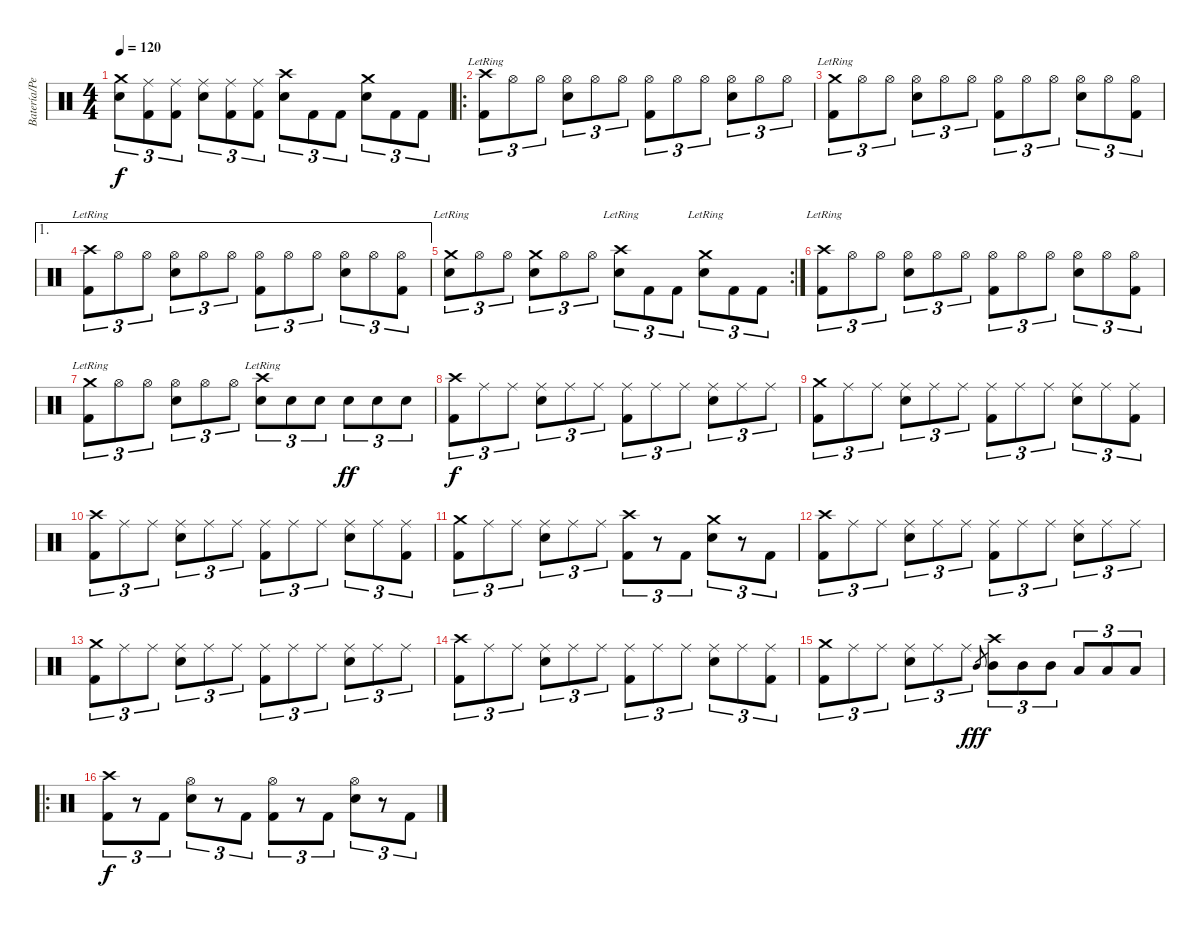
\track ("Batería/Perc." "Batería/Pe") {instrument percussion}
\staff {score}
\articulation defaults
\ts (4 4)
\tempo 120
\clef neutral
\ks c
("Crash medium (hit)" "Snare (hit) 2").8{tu (3 2) dy f volume 14} ("Ride (middle)" "Kick (hit) 2").8{tu (3 2)} ("Ride (middle)" "Kick (hit) 2").8{tu (3 2)} ("Ride (middle)" "Snare (hit) 2").8{tu (3 2)} ("Ride (middle)" "Kick (hit) 2").8{tu (3 2)} ("Ride (middle)" "Kick (hit) 2").8{tu (3 2)} ("Crash high (hit)" "Snare (hit) 2").8{tu (3 2)} "Kick (hit) 2".8{tu (3 2)} "Kick (hit) 2".8{tu (3 2)} ("Crash medium (hit)" "Snare (hit) 2").8{tu (3 2)} "Kick (hit) 2".8{tu (3 2)} "Kick (hit) 2".8{tu (3 2)} |
\ro
("Crash high (hit)"{lr} "Kick (hit) 2").8{tu (3 2) volume 14} "Hi-Hat (open)".8{tu (3 2)} "Hi-Hat (open)".8{tu (3 2)} ("Hi-Hat (open)" "Snare (hit) 2").8{tu (3 2)} "Hi-Hat (open)".8{tu (3 2)} "Hi-Hat (open)".8{tu (3 2)} ("Hi-Hat (open)" "Kick (hit) 2").8{tu (3 2)} "Hi-Hat (open)".8{tu (3 2)} "Hi-Hat (open)".8{tu (3 2)} ("Hi-Hat (open)" "Snare (hit) 2").8{tu (3 2)} "Hi-Hat (open)".8{tu (3 2)} "Hi-Hat (open)".8{tu (3 2)} |
("Crash medium (hit)"{lr} "Kick (hit) 2").8{tu (3 2) volume 14} "Hi-Hat (open)".8{tu (3 2)} "Hi-Hat (open)".8{tu (3 2)} ("Hi-Hat (open)" "Snare (hit) 2").8{tu (3 2)} "Hi-Hat (open)".8{tu (3 2)} "Hi-Hat (open)".8{tu (3 2)} ("Hi-Hat (open)" "Kick (hit) 2").8{tu (3 2)} "Hi-Hat (open)".8{tu (3 2)} "Hi-Hat (open)".8{tu (3 2)} ("Hi-Hat (open)" "Snare (hit) 2").8{tu (3 2)} "Hi-Hat (open)".8{tu (3 2)} ("Hi-Hat (open)" "Kick (hit) 2").8{tu (3 2)} |
\ae 1
("Crash high (hit)"{lr} "Kick (hit) 2").8{tu (3 2) volume 14} "Hi-Hat (open)".8{tu (3 2)} "Hi-Hat (open)".8{tu (3 2)} ("Hi-Hat (open)" "Snare (hit) 2").8{tu (3 2)} "Hi-Hat (open)".8{tu (3 2)} "Hi-Hat (open)".8{tu (3 2)} ("Hi-Hat (open)" "Kick (hit) 2").8{tu (3 2)} "Hi-Hat (open)".8{tu (3 2)} "Hi-Hat (open)".8{tu (3 2)} ("Hi-Hat (open)" "Snare (hit) 2").8{tu (3 2)} "Hi-Hat (open)".8{tu (3 2)} ("Hi-Hat (open)" "Kick (hit) 2").8{tu (3 2)} |
\rc 2
("Crash medium (hit)"{lr} "Snare (hit) 2").8{tu (3 2) volume 14} "Hi-Hat (open)".8{tu (3 2)} "Hi-Hat (open)".8{tu (3 2)} ("Crash medium (hit)" "Snare (hit) 2").8{tu (3 2)} "Hi-Hat (open)".8{tu (3 2)} "Hi-Hat (open)".8{tu (3 2)} ("Crash high (hit)"{lr} "Snare (hit) 2").8{tu (3 2)} "Kick (hit) 2".8{tu (3 2)} "Kick (hit) 2".8{tu (3 2)} ("Crash medium (hit)"{lr} "Snare (hit) 2").8{tu (3 2)} "Kick (hit) 2".8{tu (3 2)} "Kick (hit) 2".8{tu (3 2)} |
("Crash high (hit)"{lr} "Kick (hit) 2").8{tu (3 2) volume 14} "Hi-Hat (open)".8{tu (3 2)} "Hi-Hat (open)".8{tu (3 2)} ("Hi-Hat (open)" "Snare (hit) 2").8{tu (3 2)} "Hi-Hat (open)".8{tu (3 2)} "Hi-Hat (open)".8{tu (3 2)} ("Hi-Hat (open)" "Kick (hit) 2").8{tu (3 2)} "Hi-Hat (open)".8{tu (3 2)} "Hi-Hat (open)".8{tu (3 2)} ("Hi-Hat (open)" "Snare (hit) 2").8{tu (3 2)} "Hi-Hat (open)".8{tu (3 2)} ("Hi-Hat (open)" "Kick (hit) 2").8{tu (3 2)} |
("Crash medium (hit)"{lr} "Kick (hit) 2").8{tu (3 2) volume 14} "Hi-Hat (open)".8{tu (3 2)} "Hi-Hat (open)".8{tu (3 2)} ("Hi-Hat (open)" "Snare (hit) 2").8{tu (3 2)} "Hi-Hat (open)".8{tu (3 2)} "Hi-Hat (open)".8{tu (3 2)} ("Crash high (hit)"{lr} "Snare (hit) 2").8{tu (3 2)} "Snare (hit) 2".8{tu (3 2)} "Snare (hit) 2".8{tu (3 2)} "Snare (hit) 2".8{tu (3 2) dy ff} "Snare (hit) 2".8{tu (3 2)} "Snare (hit) 2".8{tu (3 2)} |
("Crash high (hit)" "Kick (hit) 2").8{tu (3 2) dy f volume 14} "Ride (middle)".8{tu (3 2)} "Ride (middle)".8{tu (3 2)} ("Ride (middle)" "Snare (hit) 2").8{tu (3 2)} "Ride (middle)".8{tu (3 2)} "Ride (middle)".8{tu (3 2)} ("Ride (middle)" "Kick (hit) 2").8{tu (3 2)} "Ride (middle)".8{tu (3 2)} "Ride (middle)".8{tu (3 2)} ("Ride (middle)" "Snare (hit) 2").8{tu (3 2)} "Ride (middle)".8{tu (3 2)} "Ride (middle)".8{tu (3 2)} |
("Crash medium (hit)" "Kick (hit) 2").8{tu (3 2) volume 14} "Ride (middle)".8{tu (3 2)} "Ride (middle)".8{tu (3 2)} ("Ride (middle)" "Snare (hit) 2").8{tu (3 2)} "Ride (middle)".8{tu (3 2)} "Ride (middle)".8{tu (3 2)} ("Ride (middle)" "Kick (hit) 2").8{tu (3 2)} "Ride (middle)".8{tu (3 2)} "Ride (middle)".8{tu (3 2)} ("Ride (middle)" "Snare (hit) 2").8{tu (3 2)} "Ride (middle)".8{tu (3 2)} ("Ride (middle)" "Kick (hit) 2").8{tu (3 2)} |
("Crash high (hit)" "Kick (hit) 2").8{tu (3 2) volume 14} "Ride (middle)".8{tu (3 2)} "Ride (middle)".8{tu (3 2)} ("Ride (middle)" "Snare (hit) 2").8{tu (3 2)} "Ride (middle)".8{tu (3 2)} "Ride (middle)".8{tu (3 2)} ("Ride (middle)" "Kick (hit) 2").8{tu (3 2)} "Ride (middle)".8{tu (3 2)} "Ride (middle)".8{tu (3 2)} ("Ride (middle)" "Snare (hit) 2").8{tu (3 2)} "Ride (middle)".8{tu (3 2)} ("Ride (middle)" "Kick (hit) 2").8{tu (3 2)} |
("Crash medium (hit)" "Kick (hit) 2").8{tu (3 2) volume 14} "Ride (middle)".8{tu (3 2)} "Ride (middle)".8{tu (3 2)} ("Ride (middle)" "Snare (hit) 2").8{tu (3 2)} "Ride (middle)".8{tu (3 2)} "Ride (middle)".8{tu (3 2)} ("Crash high (hit)" "Kick (hit) 2").8{tu (3 2)} r.8{tu (3 2)} "Kick (hit) 2".8{tu (3 2)} ("Crash medium (hit)" "Snare (hit) 2").8{tu (3 2)} r.8{tu (3 2)} "Kick (hit) 2".8{tu (3 2)} |
("Crash high (hit)" "Kick (hit) 2").8{tu (3 2) volume 14} "Ride (middle)".8{tu (3 2)} "Ride (middle)".8{tu (3 2)} ("Ride (middle)" "Snare (hit) 2").8{tu (3 2)} "Ride (middle)".8{tu (3 2)} "Ride (middle)".8{tu (3 2)} ("Ride (middle)" "Kick (hit) 2").8{tu (3 2)} "Ride (middle)".8{tu (3 2)} "Ride (middle)".8{tu (3 2)} ("Ride (middle)" "Snare (hit) 2").8{tu (3 2)} "Ride (middle)".8{tu (3 2)} "Ride (middle)".8{tu (3 2)} |
("Crash medium (hit)" "Kick (hit) 2").8{tu (3 2) volume 14} "Ride (middle)".8{tu (3 2)} "Ride (middle)".8{tu (3 2)} ("Ride (middle)" "Snare (hit) 2").8{tu (3 2)} "Ride (middle)".8{tu (3 2)} "Ride (middle)".8{tu (3 2)} ("Ride (middle)" "Kick (hit) 2").8{tu (3 2)} "Ride (middle)".8{tu (3 2)} "Ride (middle)".8{tu (3 2)} ("Ride (middle)" "Snare (hit) 2").8{tu (3 2)} "Ride (middle)".8{tu (3 2)} "Ride (middle)".8{tu (3 2)} |
("Crash high (hit)" "Kick (hit) 2").8{tu (3 2) volume 14} "Ride (middle)".8{tu (3 2)} "Ride (middle)".8{tu (3 2)} ("Ride (middle)" "Snare (hit) 2").8{tu (3 2)} "Ride (middle)".8{tu (3 2)} "Ride (middle)".8{tu (3 2)} ("Ride (middle)" "Kick (hit) 2").8{tu (3 2)} "Ride (middle)".8{tu (3 2)} "Ride (middle)".8{tu (3 2)} ("Ride (middle)" "Snare (hit) 2").8{tu (3 2)} "Ride (middle)".8{tu (3 2)} ("Ride (middle)" "Kick (hit) 2").8{tu (3 2)} |
("Crash medium (hit)" "Kick (hit) 2").8{tu (3 2) volume 14} "Ride (middle)".8{tu (3 2)} "Ride (middle)".8{tu (3 2)} ("Ride (middle)" "Snare (hit) 2").8{tu (3 2)} "Ride (middle)".8{tu (3 2)} "Ride (middle)".8{tu (3 2)} "Mid Tom (hit)".8{gr dy fff} ("Crash high (hit)" "Mid Tom (hit)").8{tu (3 2)} "Mid Tom (hit)".8{tu (3 2)} "Mid Tom (hit)".8{tu (3 2)} "Low Tom (hit)".8{tu (3 2)} "Low Tom (hit)".8{tu (3 2)} "Low Tom (hit)".8{tu (3 2)} |
\ro
("Crash high (hit)" "Kick (hit) 2").8{tu (3 2) dy f volume 14} r.8{tu (3 2)} "Kick (hit) 2".8{tu (3 2)} ("Hi-Hat (open)" "Snare (hit) 2").8{tu (3 2)} r.8{tu (3 2)} "Kick (hit) 2".8{tu (3 2)} ("Hi-Hat (open)" "Kick (hit) 2").8{tu (3 2)} r.8{tu (3 2)} "Kick (hit) 2".8{tu (3 2)} ("Hi-Hat (open)" "Snare (hit) 2").8{tu (3 2)} r.8{tu (3 2)} "Kick (hit) 2".8{tu (3 2)}
